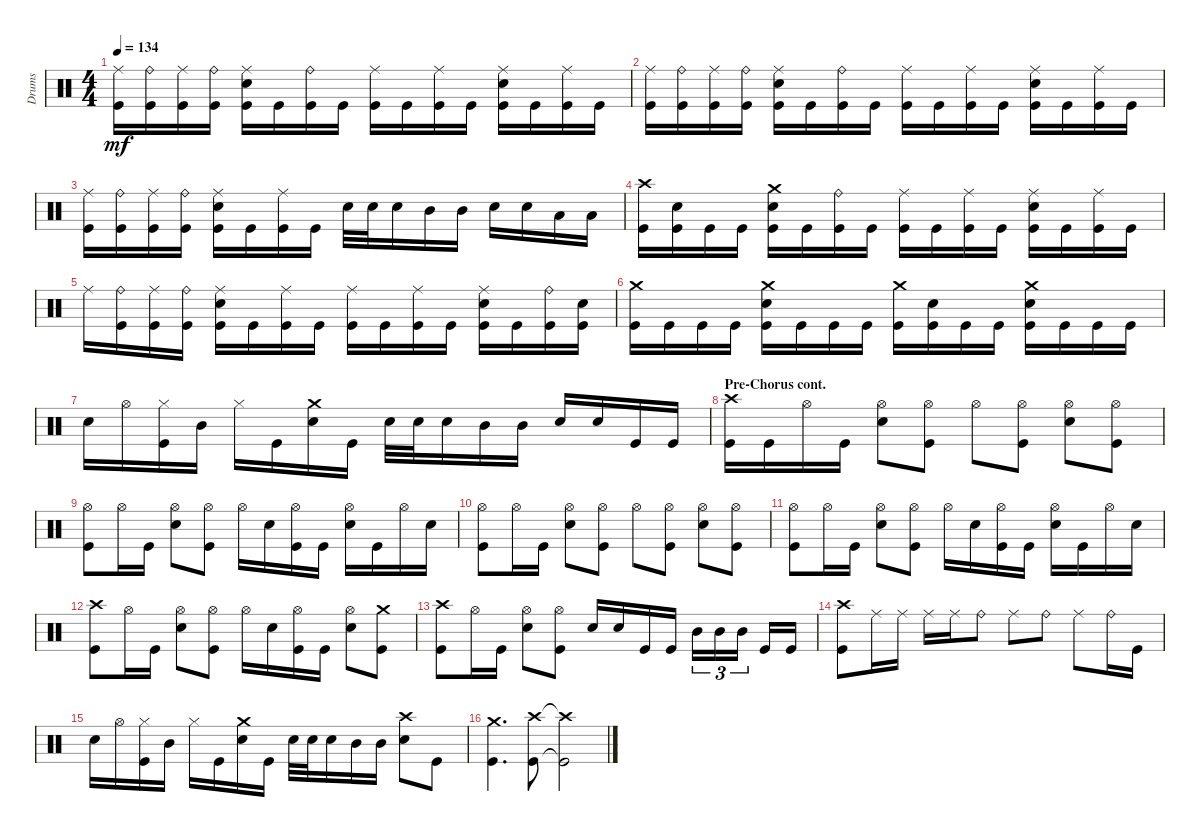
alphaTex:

\track ("Drums" "Drums") {instrument percussion}
\staff {score}
\articulation defaults
\ts (4 4)
\tempo 134
\clef neutral
\ks aminor
("Ride (middle)" "Kick (hit)").16{dy mf} ("Ride (bell)" "Kick (hit)").16 ("Ride (middle)" "Kick (hit)").16 ("Ride (bell)" "Kick (hit)").16 ("Ride (middle)" "Snare (hit) 2" "Kick (hit)").16 "Kick (hit)".16 ("Ride (bell)" "Kick (hit)").16 "Kick (hit)".16 ("Kick (hit)" "Ride (middle)").16 "Kick (hit)".16 ("Kick (hit)" "Ride (middle)").16 "Kick (hit)".16 ("Kick (hit)" "Ride (middle)" "Snare (hit) 2").16 "Kick (hit)".16 ("Kick (hit)" "Ride (middle)").16 "Kick (hit)".16 |
("Ride (middle)" "Kick (hit)").16 ("Ride (bell)" "Kick (hit)").16 ("Ride (middle)" "Kick (hit)").16 ("Ride (bell)" "Kick (hit)").16 ("Ride (middle)" "Snare (hit) 2" "Kick (hit)").16 "Kick (hit)".16 ("Ride (bell)" "Kick (hit)").16 "Kick (hit)".16 ("Kick (hit)" "Ride (middle)").16 "Kick (hit)".16 ("Kick (hit)" "Ride (middle)").16 "Kick (hit)".16 ("Kick (hit)" "Ride (middle)" "Snare (hit) 2").16 "Kick (hit)".16 ("Kick (hit)" "Ride (middle)").16 "Kick (hit)".16 |
("Ride (middle)" "Kick (hit)").16 ("Ride (bell)" "Kick (hit)").16 ("Kick (hit)" "Ride (middle)").16 ("Ride (bell)" "Kick (hit)").16 ("Kick (hit)" "Ride (middle)" "Snare (hit) 2").16 "Kick (hit)".16 ("Kick (hit)" "Ride (middle)").16 "Kick (hit)".16 "Snare (hit) 2".32 "Snare (hit) 2".32 "Snare (hit) 2".16 "Mid Tom (hit)".16 "Mid Tom (hit)".16 "Snare (hit) 2".16 "Snare (hit) 2".16 "Low Tom (hit)".16 "Low Tom (hit)".16 |
("Kick (hit)" "Crash high (hit)").16 ("Snare (hit) 2" "Kick (hit)").16 "Kick (hit)".16 "Kick (hit)".16 ("Kick (hit)" "Snare (hit) 2" "Crash medium (hit)").16 "Kick (hit)".16 ("Ride (bell)" "Kick (hit)").16 "Kick (hit)".16 ("Ride (middle)" "Kick (hit)").16 "Kick (hit)".16 ("Ride (middle)" "Kick (hit)").16 "Kick (hit)".16 ("Kick (hit)" "Ride (middle)" "Snare (hit) 2").16 "Kick (hit)".16 ("Kick (hit)" "Ride (middle)").16 "Kick (hit)".16 |
"Ride (middle)".16 ("Kick (hit)" "Ride (bell)").16 ("Kick (hit)" "Ride (middle)").16 ("Ride (bell)" "Kick (hit)").16 ("Snare (hit) 2" "Ride (middle)" "Kick (hit)").16 "Kick (hit)".16 ("Kick (hit)" "Ride (middle)").16 "Kick (hit)".16 ("Kick (hit)" "Ride (middle)").16 "Kick (hit)".16 ("Kick (hit)" "Ride (middle)").16 "Kick (hit)".16 ("Kick (hit)" "Ride (middle)" "Snare (hit) 2").16 "Kick (hit)".16 ("Kick (hit)" "Ride (bell)").16 ("Snare (hit) 2" "Kick (hit)").16 |
("Crash medium (hit)" "Kick (hit)").16 "Kick (hit)".16 "Kick (hit)".16 "Kick (hit)".16 ("Crash medium (hit)" "Kick (hit)" "Snare (hit) 2").16 "Kick (hit)".16 "Kick (hit)".16 "Kick (hit)".16 ("Kick (hit)" "Crash medium (hit)").16 ("Kick (hit)" "Snare (hit) 2").16 "Kick (hit)".16 "Kick (hit)".16 ("Crash medium (hit)" "Kick (hit)" "Snare (hit) 2").16 "Kick (hit)".16 "Kick (hit)".16 "Kick (hit)".16 |
"Snare (hit) 2".16 "Hi-Hat (open)".16 ("Hi-Hat (closed)" "Kick (hit)").16 "Mid Tom (hit)".16 "Hi-Hat (closed)".16 "Kick (hit)".16 ("Snare (hit) 2" "Crash medium (hit)").16 "Kick (hit)".16 "Snare (hit) 2".32 "Snare (hit) 2".32 "Snare (hit) 2".16 "Mid Tom (hit)".16 "Mid Tom (hit)".16 "Snare (hit) 2".16 "Snare (hit) 2".16 "Kick (hit)".16 "Kick (hit)".16 |
\section ("" "Pre-Chorus cont.")
("Crash high (hit)" "Kick (hit)").16 "Kick (hit)".16 "Hi-Hat (open)".16 "Kick (hit)".16 ("Snare (hit) 2" "Hi-Hat (open)").8 ("Kick (hit)" "Hi-Hat (open)").8 "Hi-Hat (open)".8 ("Kick (hit)" "Hi-Hat (open)").8 ("Hi-Hat (open)" "Snare (hit) 2").8 ("Hi-Hat (open)" "Kick (hit)").8 |
("Kick (hit)" "Hi-Hat (open)").8 "Hi-Hat (open)".16 "Kick (hit)".16 ("Hi-Hat (open)" "Snare (hit) 2").8 ("Hi-Hat (open)" "Kick (hit)").8 "Hi-Hat (open)".16 "Snare (hit) 2".16 ("Hi-Hat (open)" "Kick (hit)").16 "Kick (hit)".16 ("Hi-Hat (open)" "Snare (hit) 2").16 "Kick (hit)".16 "Hi-Hat (open)".16 "Snare (hit) 2".16 |
("Kick (hit)" "Hi-Hat (open)").8 "Hi-Hat (open)".16 "Kick (hit)".16 ("Snare (hit) 2" "Hi-Hat (open)").8 ("Hi-Hat (open)" "Kick (hit)").8 "Hi-Hat (open)".8 ("Hi-Hat (open)" "Kick (hit)").8 ("Snare (hit) 2" "Hi-Hat (open)").8 ("Kick (hit)" "Hi-Hat (open)").8 |
("Kick (hit)" "Hi-Hat (open)").8 "Hi-Hat (open)".16 "Kick (hit)".16 ("Snare (hit) 2" "Hi-Hat (open)").8 ("Hi-Hat (open)" "Kick (hit)").8 "Hi-Hat (open)".16 "Snare (hit) 2".16 ("Hi-Hat (open)" "Kick (hit)").16 "Kick (hit)".16 ("Hi-Hat (open)" "Snare (hit) 2").16 "Kick (hit)".16 "Hi-Hat (open)".16 "Snare (hit) 2".16 |
("Crash high (hit)" "Kick (hit)").8 "Hi-Hat (open)".16 "Kick (hit)".16 ("Snare (hit) 2" "Hi-Hat (open)").8 ("Kick (hit)" "Hi-Hat (open)").8 "Hi-Hat (open)".16 "Snare (hit) 2".16 ("Hi-Hat (open)" "Kick (hit)").16 "Kick (hit)".16 ("Hi-Hat (open)" "Snare (hit) 2").8 ("Crash medium (hit)" "Kick (hit)").8 |
("Crash high (hit)" "Kick (hit)").8 "Hi-Hat (open)".16 "Kick (hit)".16 ("Hi-Hat (open)" "Snare (hit) 2").8 ("Hi-Hat (open)" "Kick (hit)").8 "Snare (hit) 2".16 "Snare (hit) 2".16 "Kick (hit)".16 "Kick (hit)".16 "Mid Tom (hit)".16{tu (3 2)} "Mid Tom (hit)".16{tu (3 2)} "Mid Tom (hit)".16{tu (3 2)} "Kick (hit)".16 "Kick (hit)".16 |
("Kick (hit)" "Crash high (hit)").8 "Ride (middle)".16 "Ride (middle)".16 "Ride (middle)".16 "Ride (middle)".16 "Ride (bell)".8 "Ride (middle)".8 "Ride (bell)".8 "Ride (middle)".8 "Ride (bell)".16 "Kick (hit)".16 |
"Snare (hit) 2".16 "Hi-Hat (open)".16 ("Kick (hit)" "Hi-Hat (closed)").16 "Mid Tom (hit)".16 "Hi-Hat (closed)".16 "Kick (hit)".16 ("Crash medium (hit)" "Snare (hit) 2").16 "Kick (hit)".16 "Snare (hit) 2".32 "Snare (hit) 2".32 "Snare (hit) 2".16 "Mid Tom (hit)".16 "Mid Tom (hit)".16 ("Crash high (hit)" "Snare (hit) 2").8 "Kick (hit)".8 |
("Kick (hit)" "Crash medium (hit)").4{d} ("Kick (hit)" "Crash high (hit)").8 ("Kick (hit)"{t} "Crash high (hit)"{t}).2
